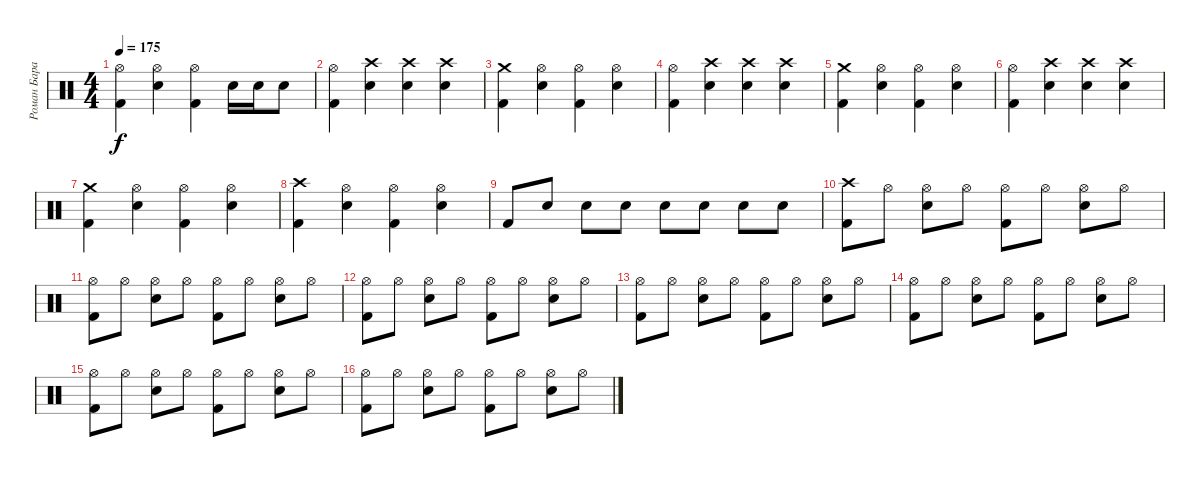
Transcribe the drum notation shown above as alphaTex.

\track ("Роман Баранюк" "Роман Бара") {instrument percussion}
\staff {score}
\articulation defaults
\ts (4 4)
\tempo 175
\clef neutral
\ks c
("Hi-Hat (open)" "Kick (hit) 2").4{dy f} ("Hi-Hat (open)" "Snare (hit) 2").4 ("Hi-Hat (open)" "Kick (hit) 2").4 "Snare (hit) 2".16 "Snare (hit) 2".16 "Snare (hit) 2".8 |
("Hi-Hat (open)" "Kick (hit) 2").4 ("Crash high (hit)" "Snare (hit) 2").4 ("Crash high (hit)" "Snare (hit) 2").4 ("Crash high (hit)" "Snare (hit) 2").4 |
("Crash medium (hit)" "Kick (hit) 2").4 ("Hi-Hat (open)" "Snare (hit) 2").4 ("Hi-Hat (open)" "Kick (hit) 2").4 ("Hi-Hat (open)" "Snare (hit) 2").4 |
("Hi-Hat (open)" "Kick (hit) 2").4 ("Crash high (hit)" "Snare (hit) 2").4 ("Crash high (hit)" "Snare (hit) 2").4 ("Crash high (hit)" "Snare (hit) 2").4 |
("Crash medium (hit)" "Kick (hit) 2").4 ("Hi-Hat (open)" "Snare (hit) 2").4 ("Hi-Hat (open)" "Kick (hit) 2").4 ("Hi-Hat (open)" "Snare (hit) 2").4 |
("Hi-Hat (open)" "Kick (hit) 2").4 ("Crash high (hit)" "Snare (hit) 2").4 ("Crash high (hit)" "Snare (hit) 2").4 ("Crash high (hit)" "Snare (hit) 2").4 |
("Crash medium (hit)" "Kick (hit) 2").4 ("Hi-Hat (open)" "Snare (hit) 2").4 ("Hi-Hat (open)" "Kick (hit) 2").4 ("Hi-Hat (open)" "Snare (hit) 2").4 |
("Crash high (hit)" "Kick (hit) 2").4 ("Hi-Hat (open)" "Snare (hit) 2").4 ("Hi-Hat (open)" "Kick (hit) 2").4 ("Hi-Hat (open)" "Snare (hit) 2").4 |
"Kick (hit) 2".8 "Snare (hit) 2".8 "Snare (hit) 2".8 "Snare (hit) 2".8 "Snare (hit) 2".8 "Snare (hit) 2".8 "Snare (hit) 2".8 "Snare (hit) 2".8 |
("Crash high (hit)" "Kick (hit) 2").8 "Hi-Hat (open)".8 ("Hi-Hat (open)" "Snare (hit) 2").8 "Hi-Hat (open)".8 ("Hi-Hat (open)" "Kick (hit) 2").8 "Hi-Hat (open)".8 ("Hi-Hat (open)" "Snare (hit) 2").8 "Hi-Hat (open)".8 |
("Hi-Hat (open)" "Kick (hit) 2").8 "Hi-Hat (open)".8 ("Hi-Hat (open)" "Snare (hit) 2").8 "Hi-Hat (open)".8 ("Hi-Hat (open)" "Kick (hit) 2").8 "Hi-Hat (open)".8 ("Hi-Hat (open)" "Snare (hit) 2").8 "Hi-Hat (open)".8 |
("Hi-Hat (open)" "Kick (hit) 2").8 "Hi-Hat (open)".8 ("Hi-Hat (open)" "Snare (hit) 2").8 "Hi-Hat (open)".8 ("Hi-Hat (open)" "Kick (hit) 2").8 "Hi-Hat (open)".8 ("Hi-Hat (open)" "Snare (hit) 2").8 "Hi-Hat (open)".8 |
("Hi-Hat (open)" "Kick (hit) 2").8 "Hi-Hat (open)".8 ("Hi-Hat (open)" "Snare (hit) 2").8 "Hi-Hat (open)".8 ("Hi-Hat (open)" "Kick (hit) 2").8 "Hi-Hat (open)".8 ("Hi-Hat (open)" "Snare (hit) 2").8 "Hi-Hat (open)".8 |
("Hi-Hat (open)" "Kick (hit) 2").8 "Hi-Hat (open)".8 ("Hi-Hat (open)" "Snare (hit) 2").8 "Hi-Hat (open)".8 ("Hi-Hat (open)" "Kick (hit) 2").8 "Hi-Hat (open)".8 ("Hi-Hat (open)" "Snare (hit) 2").8 "Hi-Hat (open)".8 |
("Hi-Hat (open)" "Kick (hit) 2").8 "Hi-Hat (open)".8 ("Hi-Hat (open)" "Snare (hit) 2").8 "Hi-Hat (open)".8 ("Hi-Hat (open)" "Kick (hit) 2").8 "Hi-Hat (open)".8 ("Hi-Hat (open)" "Snare (hit) 2").8 "Hi-Hat (open)".8 |
("Hi-Hat (open)" "Kick (hit) 2").8 "Hi-Hat (open)".8 ("Hi-Hat (open)" "Snare (hit) 2").8 "Hi-Hat (open)".8 ("Hi-Hat (open)" "Kick (hit) 2").8 "Hi-Hat (open)".8 ("Hi-Hat (open)" "Snare (hit) 2").8 "Hi-Hat (open)".8
